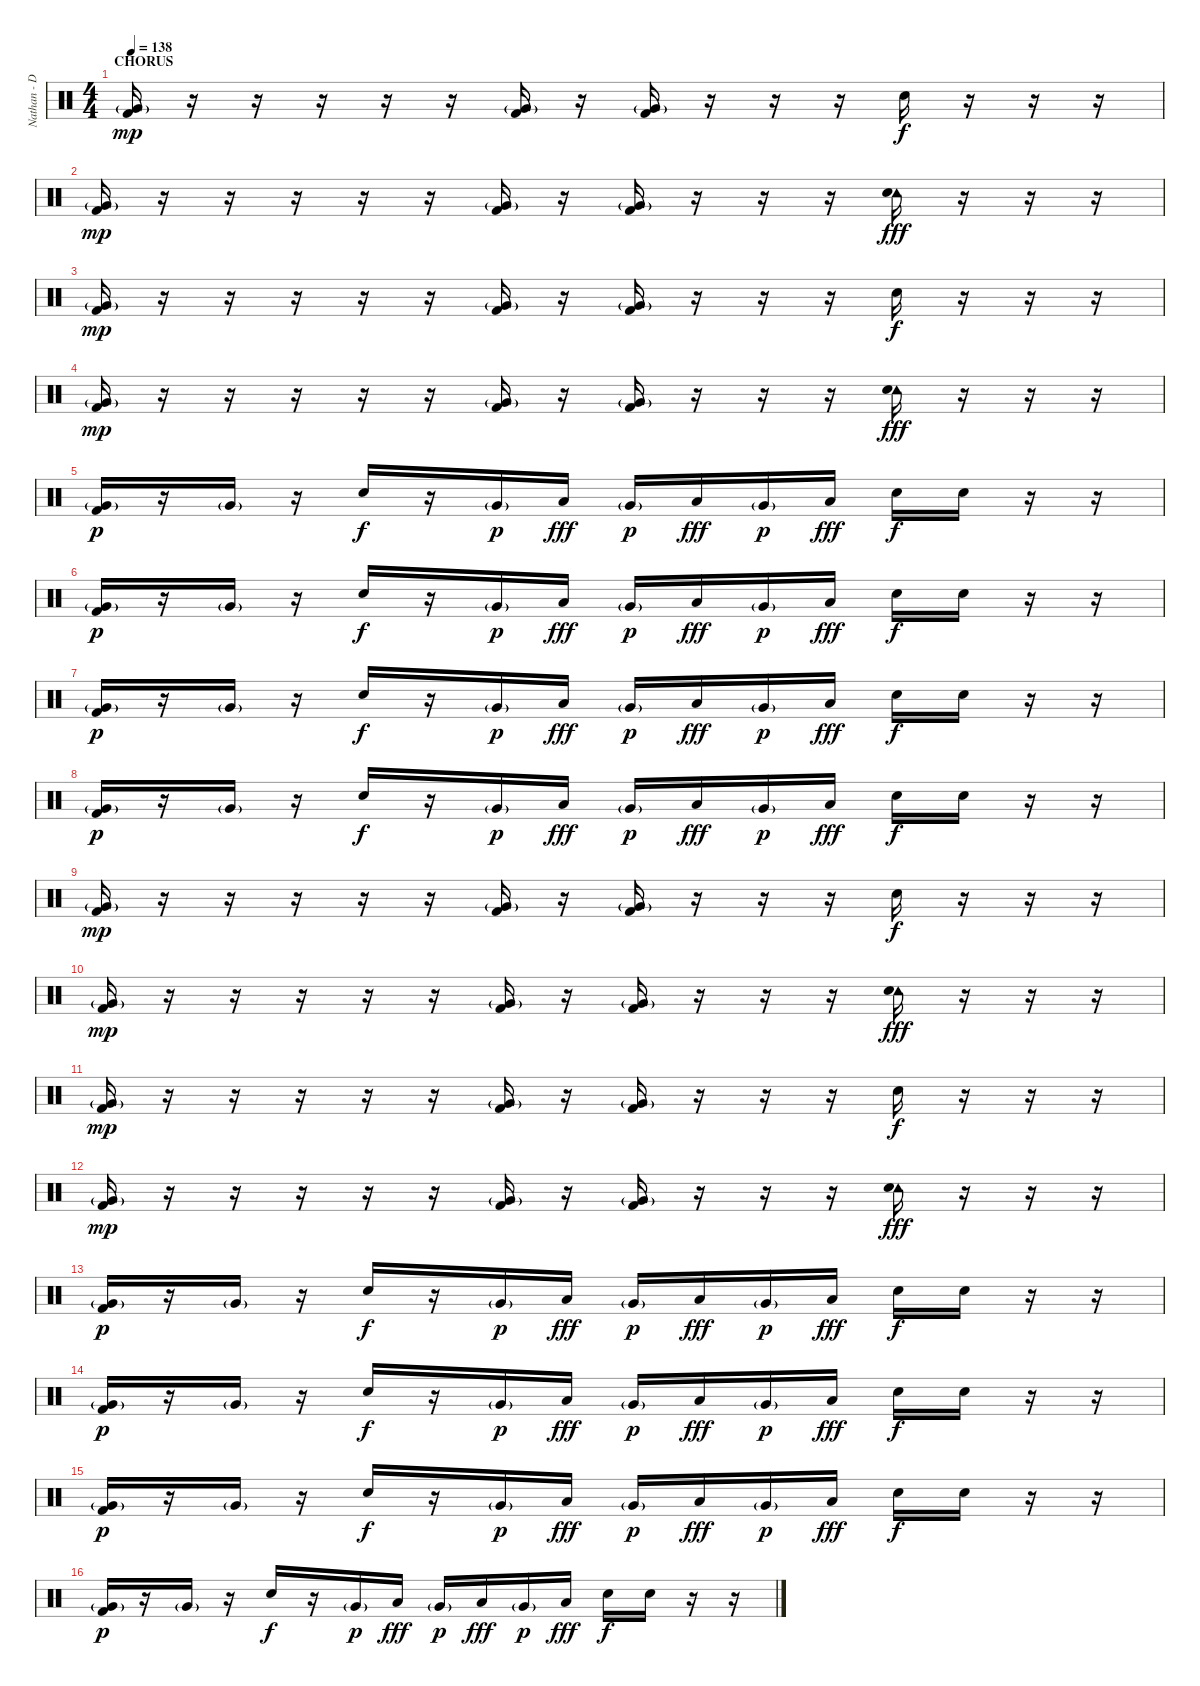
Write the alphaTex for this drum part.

\track ("Nathan - Drums" "Nathan - D") {instrument percussion}
\staff {score}
\articulation defaults
\ts (4 4)
\section ("" "CHORUS")
\tempo 138
\clef neutral
\ks c
("Very Low Tom (hit)"{g} "Kick (hit) 2").16{dy mp} r.16 r.16 r.16 r.16 r.16 ("Very Low Tom (hit)"{g} "Kick (hit) 2").16 r.16 ("Very Low Tom (hit)"{g} "Kick (hit) 2").16 r.16 r.16 r.16 "Electric Snare (hit)".16{dy f} r.16 r.16 r.16 |
("Very Low Tom (hit)"{g} "Kick (hit) 2").16{dy mp} r.16 r.16 r.16 r.16 r.16 ("Very Low Tom (hit)"{g} "Kick (hit) 2").16 r.16 ("Very Low Tom (hit)"{g} "Kick (hit) 2").16 r.16 r.16 r.16 ("Tambourine (hit)" "Electric Snare (hit)").16{dy fff} r.16 r.16 r.16 |
("Very Low Tom (hit)"{g} "Kick (hit) 2").16{dy mp} r.16 r.16 r.16 r.16 r.16 ("Very Low Tom (hit)"{g} "Kick (hit) 2").16 r.16 ("Very Low Tom (hit)"{g} "Kick (hit) 2").16 r.16 r.16 r.16 "Electric Snare (hit)".16{dy f} r.16 r.16 r.16 |
("Very Low Tom (hit)"{g} "Kick (hit) 2").16{dy mp} r.16 r.16 r.16 r.16 r.16 ("Very Low Tom (hit)"{g} "Kick (hit) 2").16 r.16 ("Very Low Tom (hit)"{g} "Kick (hit) 2").16 r.16 r.16 r.16 ("Tambourine (hit)" "Electric Snare (hit)").16{dy fff} r.16 r.16 r.16 |
("Very Low Tom (hit)"{g} "Kick (hit) 2").16{dy p} r.16 "Very Low Tom (hit)"{g}.16 r.16 "Snare (hit) 2".16{dy f} r.16 "Very Low Tom (hit)"{g}.16{dy p} "Low Tom (hit)".16{dy fff} "Very Low Tom (hit)"{g}.16{dy p} "Low Tom (hit)".16{dy fff} "Very Low Tom (hit)"{g}.16{dy p} "Low Tom (hit)".16{dy fff} "Snare (hit) 2".16{dy f} "Snare (hit) 2".16 r.16 r.16 |
("Very Low Tom (hit)"{g} "Kick (hit) 2").16{dy p} r.16 "Very Low Tom (hit)"{g}.16 r.16 "Snare (hit) 2".16{dy f} r.16 "Very Low Tom (hit)"{g}.16{dy p} "Low Tom (hit)".16{dy fff} "Very Low Tom (hit)"{g}.16{dy p} "Low Tom (hit)".16{dy fff} "Very Low Tom (hit)"{g}.16{dy p} "Low Tom (hit)".16{dy fff} "Snare (hit) 2".16{dy f} "Snare (hit) 2".16 r.16 r.16 |
("Very Low Tom (hit)"{g} "Kick (hit) 2").16{dy p} r.16 "Very Low Tom (hit)"{g}.16 r.16 "Snare (hit) 2".16{dy f} r.16 "Very Low Tom (hit)"{g}.16{dy p} "Low Tom (hit)".16{dy fff} "Very Low Tom (hit)"{g}.16{dy p} "Low Tom (hit)".16{dy fff} "Very Low Tom (hit)"{g}.16{dy p} "Low Tom (hit)".16{dy fff} "Snare (hit) 2".16{dy f} "Snare (hit) 2".16 r.16 r.16 |
("Very Low Tom (hit)"{g} "Kick (hit) 2").16{dy p} r.16 "Very Low Tom (hit)"{g}.16 r.16 "Snare (hit) 2".16{dy f} r.16 "Very Low Tom (hit)"{g}.16{dy p} "Low Tom (hit)".16{dy fff} "Very Low Tom (hit)"{g}.16{dy p} "Low Tom (hit)".16{dy fff} "Very Low Tom (hit)"{g}.16{dy p} "Low Tom (hit)".16{dy fff} "Snare (hit) 2".16{dy f} "Snare (hit) 2".16 r.16 r.16 |
("Very Low Tom (hit)"{g} "Kick (hit) 2").16{dy mp} r.16 r.16 r.16 r.16 r.16 ("Very Low Tom (hit)"{g} "Kick (hit) 2").16 r.16 ("Very Low Tom (hit)"{g} "Kick (hit) 2").16 r.16 r.16 r.16 "Electric Snare (hit)".16{dy f} r.16 r.16 r.16 |
("Very Low Tom (hit)"{g} "Kick (hit) 2").16{dy mp} r.16 r.16 r.16 r.16 r.16 ("Very Low Tom (hit)"{g} "Kick (hit) 2").16 r.16 ("Very Low Tom (hit)"{g} "Kick (hit) 2").16 r.16 r.16 r.16 ("Tambourine (hit)" "Electric Snare (hit)").16{dy fff} r.16 r.16 r.16 |
("Very Low Tom (hit)"{g} "Kick (hit) 2").16{dy mp} r.16 r.16 r.16 r.16 r.16 ("Very Low Tom (hit)"{g} "Kick (hit) 2").16 r.16 ("Very Low Tom (hit)"{g} "Kick (hit) 2").16 r.16 r.16 r.16 "Electric Snare (hit)".16{dy f} r.16 r.16 r.16 |
("Very Low Tom (hit)"{g} "Kick (hit) 2").16{dy mp} r.16 r.16 r.16 r.16 r.16 ("Very Low Tom (hit)"{g} "Kick (hit) 2").16 r.16 ("Very Low Tom (hit)"{g} "Kick (hit) 2").16 r.16 r.16 r.16 ("Tambourine (hit)" "Electric Snare (hit)").16{dy fff} r.16 r.16 r.16 |
("Very Low Tom (hit)"{g} "Kick (hit) 2").16{dy p} r.16 "Very Low Tom (hit)"{g}.16 r.16 "Snare (hit) 2".16{dy f} r.16 "Very Low Tom (hit)"{g}.16{dy p} "Low Tom (hit)".16{dy fff} "Very Low Tom (hit)"{g}.16{dy p} "Low Tom (hit)".16{dy fff} "Very Low Tom (hit)"{g}.16{dy p} "Low Tom (hit)".16{dy fff} "Snare (hit) 2".16{dy f} "Snare (hit) 2".16 r.16 r.16 |
("Very Low Tom (hit)"{g} "Kick (hit) 2").16{dy p} r.16 "Very Low Tom (hit)"{g}.16 r.16 "Snare (hit) 2".16{dy f} r.16 "Very Low Tom (hit)"{g}.16{dy p} "Low Tom (hit)".16{dy fff} "Very Low Tom (hit)"{g}.16{dy p} "Low Tom (hit)".16{dy fff} "Very Low Tom (hit)"{g}.16{dy p} "Low Tom (hit)".16{dy fff} "Snare (hit) 2".16{dy f} "Snare (hit) 2".16 r.16 r.16 |
("Very Low Tom (hit)"{g} "Kick (hit) 2").16{dy p} r.16 "Very Low Tom (hit)"{g}.16 r.16 "Snare (hit) 2".16{dy f} r.16 "Very Low Tom (hit)"{g}.16{dy p} "Low Tom (hit)".16{dy fff} "Very Low Tom (hit)"{g}.16{dy p} "Low Tom (hit)".16{dy fff} "Very Low Tom (hit)"{g}.16{dy p} "Low Tom (hit)".16{dy fff} "Snare (hit) 2".16{dy f} "Snare (hit) 2".16 r.16 r.16 |
("Very Low Tom (hit)"{g} "Kick (hit) 2").16{dy p} r.16 "Very Low Tom (hit)"{g}.16 r.16 "Snare (hit) 2".16{dy f} r.16 "Very Low Tom (hit)"{g}.16{dy p} "Low Tom (hit)".16{dy fff} "Very Low Tom (hit)"{g}.16{dy p} "Low Tom (hit)".16{dy fff} "Very Low Tom (hit)"{g}.16{dy p} "Low Tom (hit)".16{dy fff} "Snare (hit) 2".16{dy f} "Snare (hit) 2".16 r.16 r.16
